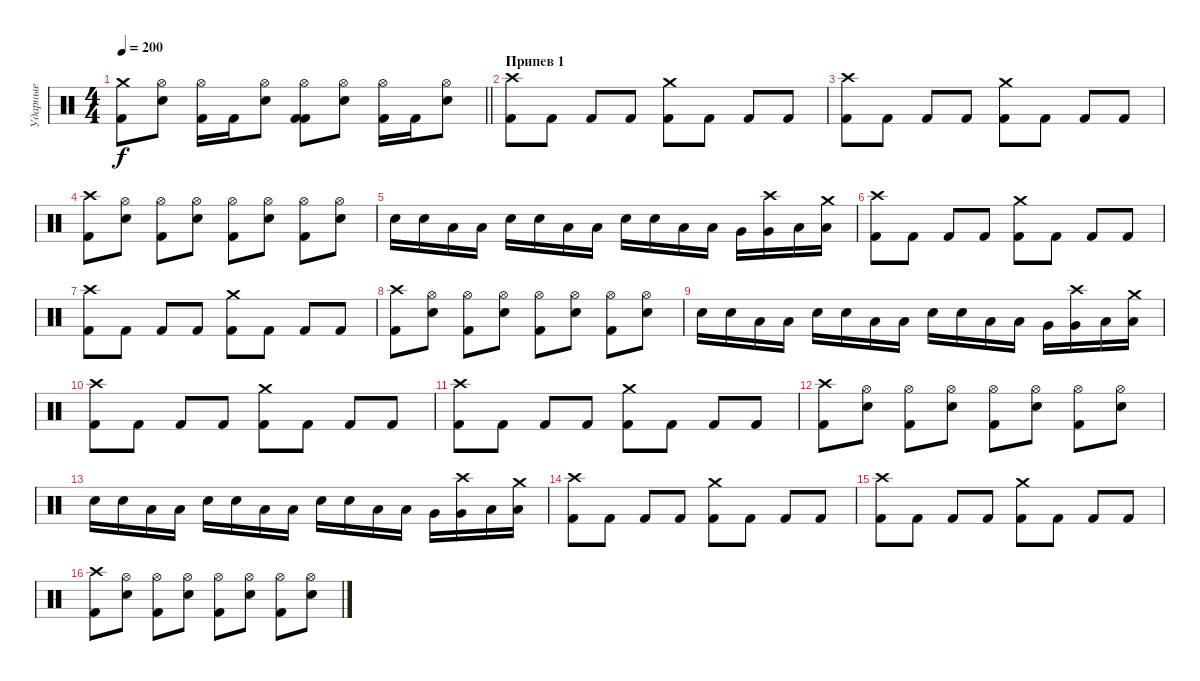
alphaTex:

\track ("Ударные" "Ударные") {instrument percussion}
\staff {score}
\articulation defaults
\ts (4 4)
\tempo 200
\clef neutral
\barLineRight lightlight
\ks c
("Kick (hit) 2" "Crash medium (hit)").8{dy f} ("Hi-Hat (open)" "Electric Snare (hit)").8 ("Kick (hit) 2" "Hi-Hat (open)").16 "Kick (hit) 2".16 ("Hi-Hat (open)" "Electric Snare (hit)").8 ("Kick (hit) 2" "Kick (hit) 2" "Hi-Hat (open)").8 ("Hi-Hat (open)" "Electric Snare (hit)").8 ("Kick (hit) 2" "Hi-Hat (open)").16 "Kick (hit) 2".16 ("Hi-Hat (open)" "Electric Snare (hit)").8 |
\section ("" "Припев 1")
("Crash high (hit)" "Kick (hit) 2").8 "Kick (hit) 2".8 "Kick (hit) 2".8 "Kick (hit) 2".8 ("Crash medium (hit)" "Kick (hit) 2").8 "Kick (hit) 2".8 "Kick (hit) 2".8 "Kick (hit) 2".8 |
("Crash high (hit)" "Kick (hit) 2").8 "Kick (hit) 2".8 "Kick (hit) 2".8 "Kick (hit) 2".8 ("Crash medium (hit)" "Kick (hit) 2").8 "Kick (hit) 2".8 "Kick (hit) 2".8 "Kick (hit) 2".8 |
("Crash high (hit)" "Kick (hit) 2").8 ("Hi-Hat (open)" "Snare (hit) 2").8 ("Hi-Hat (open)" "Kick (hit) 2").8 ("Hi-Hat (open)" "Snare (hit) 2").8 ("Hi-Hat (open)" "Kick (hit) 2").8 ("Hi-Hat (open)" "Snare (hit) 2").8 ("Hi-Hat (open)" "Kick (hit) 2").8 ("Hi-Hat (open)" "Snare (hit) 2").8 |
"Snare (hit) 2".16 "Snare (hit) 2".16 "Low Tom (hit)".16 "Low Tom (hit)".16 "Snare (hit) 2".16 "Snare (hit) 2".16 "Low Tom (hit)".16 "Low Tom (hit)".16 "Snare (hit) 2".16 "Snare (hit) 2".16 "Low Tom (hit)".16 "Low Tom (hit)".16 "Very Low Tom (hit)".16 ("Crash high (hit)" "Very Low Tom (hit)").16 "Low Floor Tom (hit)".16 ("Crash medium (hit)" "Low Floor Tom (hit)").16 |
("Crash high (hit)" "Kick (hit) 2").8 "Kick (hit) 2".8 "Kick (hit) 2".8 "Kick (hit) 2".8 ("Crash medium (hit)" "Kick (hit) 2").8 "Kick (hit) 2".8 "Kick (hit) 2".8 "Kick (hit) 2".8 |
("Crash high (hit)" "Kick (hit) 2").8 "Kick (hit) 2".8 "Kick (hit) 2".8 "Kick (hit) 2".8 ("Crash medium (hit)" "Kick (hit) 2").8 "Kick (hit) 2".8 "Kick (hit) 2".8 "Kick (hit) 2".8 |
("Crash high (hit)" "Kick (hit) 2").8 ("Hi-Hat (open)" "Snare (hit) 2").8 ("Hi-Hat (open)" "Kick (hit) 2").8 ("Hi-Hat (open)" "Snare (hit) 2").8 ("Hi-Hat (open)" "Kick (hit) 2").8 ("Hi-Hat (open)" "Snare (hit) 2").8 ("Hi-Hat (open)" "Kick (hit) 2").8 ("Hi-Hat (open)" "Snare (hit) 2").8 |
"Snare (hit) 2".16 "Snare (hit) 2".16 "Low Tom (hit)".16 "Low Tom (hit)".16 "Snare (hit) 2".16 "Snare (hit) 2".16 "Low Tom (hit)".16 "Low Tom (hit)".16 "Snare (hit) 2".16 "Snare (hit) 2".16 "Low Tom (hit)".16 "Low Tom (hit)".16 "Very Low Tom (hit)".16 ("Crash high (hit)" "Very Low Tom (hit)").16 "Low Floor Tom (hit)".16 ("Crash medium (hit)" "Low Floor Tom (hit)").16 |
("Crash high (hit)" "Kick (hit) 2").8 "Kick (hit) 2".8 "Kick (hit) 2".8 "Kick (hit) 2".8 ("Crash medium (hit)" "Kick (hit) 2").8 "Kick (hit) 2".8 "Kick (hit) 2".8 "Kick (hit) 2".8 |
("Crash high (hit)" "Kick (hit) 2").8 "Kick (hit) 2".8 "Kick (hit) 2".8 "Kick (hit) 2".8 ("Crash medium (hit)" "Kick (hit) 2").8 "Kick (hit) 2".8 "Kick (hit) 2".8 "Kick (hit) 2".8 |
("Crash high (hit)" "Kick (hit) 2").8 ("Hi-Hat (open)" "Snare (hit) 2").8 ("Hi-Hat (open)" "Kick (hit) 2").8 ("Hi-Hat (open)" "Snare (hit) 2").8 ("Hi-Hat (open)" "Kick (hit) 2").8 ("Hi-Hat (open)" "Snare (hit) 2").8 ("Hi-Hat (open)" "Kick (hit) 2").8 ("Hi-Hat (open)" "Snare (hit) 2").8 |
"Snare (hit) 2".16 "Snare (hit) 2".16 "Low Tom (hit)".16 "Low Tom (hit)".16 "Snare (hit) 2".16 "Snare (hit) 2".16 "Low Tom (hit)".16 "Low Tom (hit)".16 "Snare (hit) 2".16 "Snare (hit) 2".16 "Low Tom (hit)".16 "Low Tom (hit)".16 "Very Low Tom (hit)".16 ("Crash high (hit)" "Very Low Tom (hit)").16 "Low Floor Tom (hit)".16 ("Crash medium (hit)" "Low Floor Tom (hit)").16 |
("Crash high (hit)" "Kick (hit) 2").8 "Kick (hit) 2".8 "Kick (hit) 2".8 "Kick (hit) 2".8 ("Crash medium (hit)" "Kick (hit) 2").8 "Kick (hit) 2".8 "Kick (hit) 2".8 "Kick (hit) 2".8 |
("Crash high (hit)" "Kick (hit) 2").8 "Kick (hit) 2".8 "Kick (hit) 2".8 "Kick (hit) 2".8 ("Crash medium (hit)" "Kick (hit) 2").8 "Kick (hit) 2".8 "Kick (hit) 2".8 "Kick (hit) 2".8 |
("Crash high (hit)" "Kick (hit) 2").8 ("Hi-Hat (open)" "Snare (hit) 2").8 ("Hi-Hat (open)" "Kick (hit) 2").8 ("Hi-Hat (open)" "Snare (hit) 2").8 ("Hi-Hat (open)" "Kick (hit) 2").8 ("Hi-Hat (open)" "Snare (hit) 2").8 ("Hi-Hat (open)" "Kick (hit) 2").8 ("Hi-Hat (open)" "Snare (hit) 2").8
